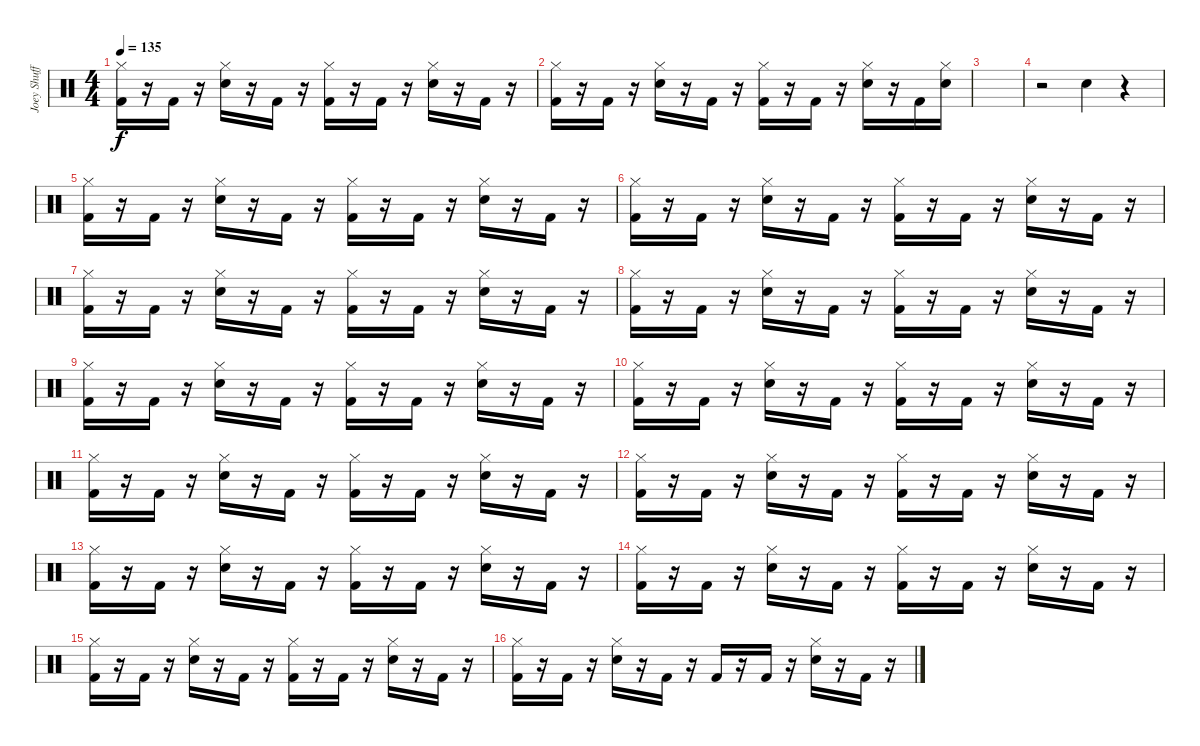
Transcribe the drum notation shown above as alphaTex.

\track ("Joey Shuffield" "Joey Shuff") {instrument percussion}
\staff {score}
\articulation defaults
\ts (4 4)
\tempo 135
\clef neutral
\ks c
("Kick (hit) 2" "Hi-Hat (closed)").16{dy f} r.16 "Kick (hit) 2".16 r.16 ("Snare (hit) 2" "Hi-Hat (closed)").16 r.16 "Kick (hit) 2".16 r.16 ("Kick (hit) 2" "Hi-Hat (closed)").16 r.16 "Kick (hit) 2".16 r.16 ("Snare (hit) 2" "Hi-Hat (closed)").16 r.16 "Kick (hit) 2".16 r.16 |
("Kick (hit) 2" "Hi-Hat (closed)").16 r.16 "Kick (hit) 2".16 r.16 ("Snare (hit) 2" "Hi-Hat (closed)").16 r.16 "Kick (hit) 2".16 r.16 ("Kick (hit) 2" "Hi-Hat (closed)").16 r.16 "Kick (hit) 2".16 r.16 ("Snare (hit) 2" "Hi-Hat (closed)").16 r.16 "Kick (hit) 2".16 ("Snare (hit) 2" "Hi-Hat (closed)").16 |
|
r.2 "Snare (hit) 2".4 r.4 |
("Kick (hit) 2" "Hi-Hat (closed)").16 r.16 "Kick (hit) 2".16 r.16 ("Snare (hit) 2" "Hi-Hat (closed)").16 r.16 "Kick (hit) 2".16 r.16 ("Kick (hit) 2" "Hi-Hat (closed)").16 r.16 "Kick (hit) 2".16 r.16 ("Snare (hit) 2" "Hi-Hat (closed)").16 r.16 "Kick (hit) 2".16 r.16 |
("Kick (hit) 2" "Hi-Hat (closed)").16 r.16 "Kick (hit) 2".16 r.16 ("Snare (hit) 2" "Hi-Hat (closed)").16 r.16 "Kick (hit) 2".16 r.16 ("Kick (hit) 2" "Hi-Hat (closed)").16 r.16 "Kick (hit) 2".16 r.16 ("Snare (hit) 2" "Hi-Hat (closed)").16 r.16 "Kick (hit) 2".16 r.16 |
("Kick (hit) 2" "Hi-Hat (closed)").16 r.16 "Kick (hit) 2".16 r.16 ("Snare (hit) 2" "Hi-Hat (closed)").16 r.16 "Kick (hit) 2".16 r.16 ("Kick (hit) 2" "Hi-Hat (closed)").16 r.16 "Kick (hit) 2".16 r.16 ("Snare (hit) 2" "Hi-Hat (closed)").16 r.16 "Kick (hit) 2".16 r.16 |
("Kick (hit) 2" "Hi-Hat (closed)").16 r.16 "Kick (hit) 2".16 r.16 ("Snare (hit) 2" "Hi-Hat (closed)").16 r.16 "Kick (hit) 2".16 r.16 ("Kick (hit) 2" "Hi-Hat (closed)").16 r.16 "Kick (hit) 2".16 r.16 ("Snare (hit) 2" "Hi-Hat (closed)").16 r.16 "Kick (hit) 2".16 r.16 |
("Kick (hit) 2" "Hi-Hat (closed)").16 r.16 "Kick (hit) 2".16 r.16 ("Snare (hit) 2" "Hi-Hat (closed)").16 r.16 "Kick (hit) 2".16 r.16 ("Kick (hit) 2" "Hi-Hat (closed)").16 r.16 "Kick (hit) 2".16 r.16 ("Snare (hit) 2" "Hi-Hat (closed)").16 r.16 "Kick (hit) 2".16 r.16 |
("Kick (hit) 2" "Hi-Hat (closed)").16 r.16 "Kick (hit) 2".16 r.16 ("Snare (hit) 2" "Hi-Hat (closed)").16 r.16 "Kick (hit) 2".16 r.16 ("Kick (hit) 2" "Hi-Hat (closed)").16 r.16 "Kick (hit) 2".16 r.16 ("Snare (hit) 2" "Hi-Hat (closed)").16 r.16 "Kick (hit) 2".16 r.16 |
("Kick (hit) 2" "Hi-Hat (closed)").16 r.16 "Kick (hit) 2".16 r.16 ("Snare (hit) 2" "Hi-Hat (closed)").16 r.16 "Kick (hit) 2".16 r.16 ("Kick (hit) 2" "Hi-Hat (closed)").16 r.16 "Kick (hit) 2".16 r.16 ("Snare (hit) 2" "Hi-Hat (closed)").16 r.16 "Kick (hit) 2".16 r.16 |
("Kick (hit) 2" "Hi-Hat (closed)").16 r.16 "Kick (hit) 2".16 r.16 ("Snare (hit) 2" "Hi-Hat (closed)").16 r.16 "Kick (hit) 2".16 r.16 ("Kick (hit) 2" "Hi-Hat (closed)").16 r.16 "Kick (hit) 2".16 r.16 ("Snare (hit) 2" "Hi-Hat (closed)").16 r.16 "Kick (hit) 2".16 r.16 |
("Kick (hit) 2" "Hi-Hat (closed)").16 r.16 "Kick (hit) 2".16 r.16 ("Snare (hit) 2" "Hi-Hat (closed)").16 r.16 "Kick (hit) 2".16 r.16 ("Kick (hit) 2" "Hi-Hat (closed)").16 r.16 "Kick (hit) 2".16 r.16 ("Snare (hit) 2" "Hi-Hat (closed)").16 r.16 "Kick (hit) 2".16 r.16 |
("Kick (hit) 2" "Hi-Hat (closed)").16 r.16 "Kick (hit) 2".16 r.16 ("Snare (hit) 2" "Hi-Hat (closed)").16 r.16 "Kick (hit) 2".16 r.16 ("Kick (hit) 2" "Hi-Hat (closed)").16 r.16 "Kick (hit) 2".16 r.16 ("Snare (hit) 2" "Hi-Hat (closed)").16 r.16 "Kick (hit) 2".16 r.16 |
("Kick (hit) 2" "Hi-Hat (closed)").16 r.16 "Kick (hit) 2".16 r.16 ("Snare (hit) 2" "Hi-Hat (closed)").16 r.16 "Kick (hit) 2".16 r.16 ("Kick (hit) 2" "Hi-Hat (closed)").16 r.16 "Kick (hit) 2".16 r.16 ("Snare (hit) 2" "Hi-Hat (closed)").16 r.16 "Kick (hit) 2".16 r.16 |
("Kick (hit) 2" "Hi-Hat (closed)").16 r.16 "Kick (hit) 2".16 r.16 ("Snare (hit) 2" "Hi-Hat (closed)").16 r.16 "Kick (hit) 2".16 r.16 "Kick (hit) 2".16 r.16 "Kick (hit) 2".16 r.16 ("Snare (hit) 2" "Hi-Hat (closed)").16 r.16 "Kick (hit) 2".16 r.16
